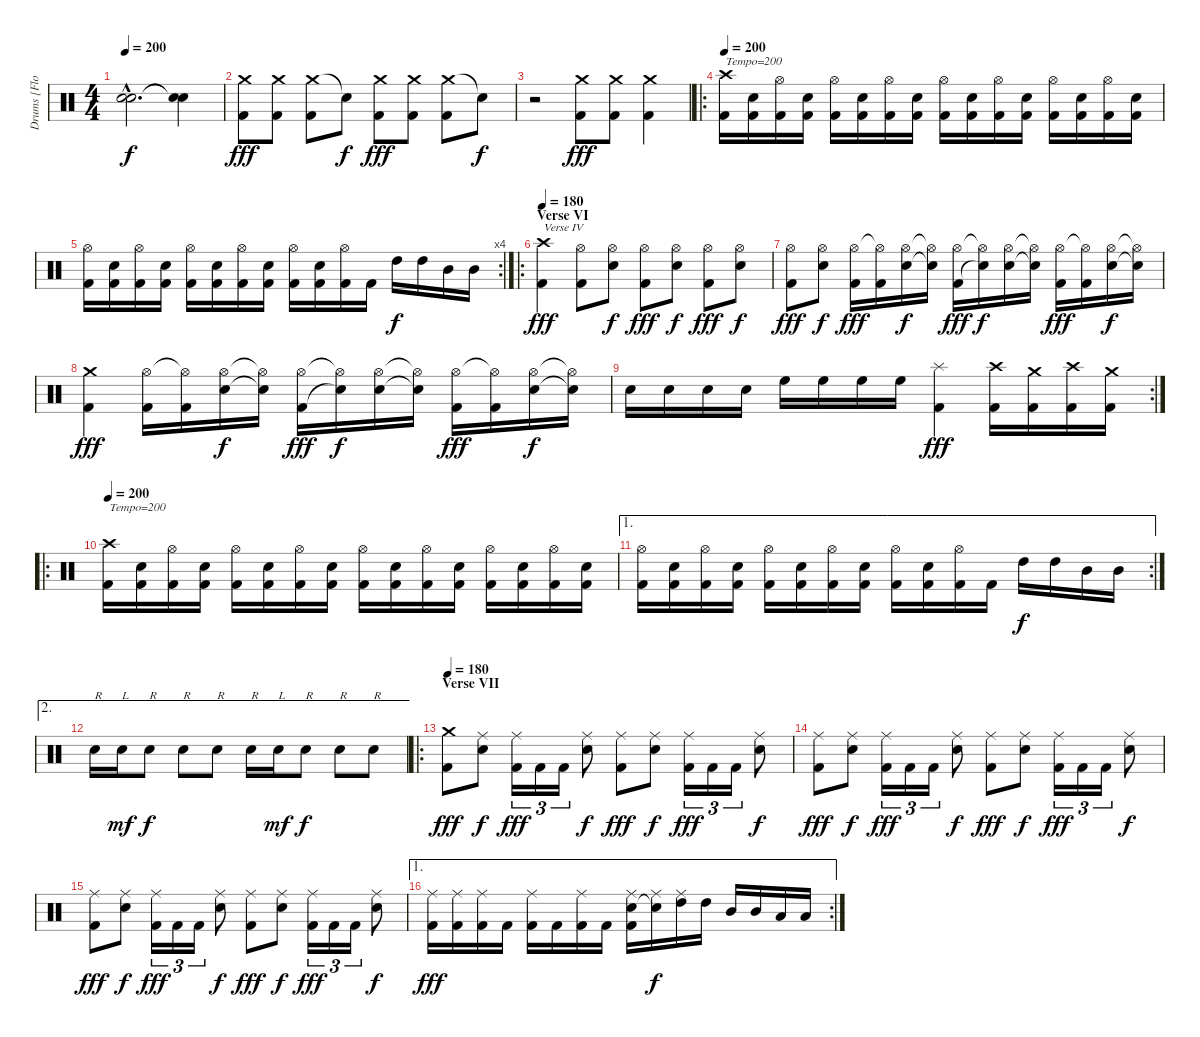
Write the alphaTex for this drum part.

\track ("Drums [Flo Mounier]" "Drums [Flo") {instrument percussion}
\staff {score}
\articulation defaults
\ts (4 4)
\tempo 200
\clef neutral
\ks c
("Snare (hit)"{hac t} "Snare (hit)"{hac t}).2{d dy f} ("Snare (hit)"{t} "Snare (hit)"{t}).4{volume 16 balance 8} |
("Crash medium (hit)" "Kick (hit) 2").8{dy fff} ("Crash medium (hit)" "Kick (hit) 2").8 ("Crash medium (hit)" "Kick (hit) 2").8 "Snare (hit)"{t}.8{dy f volume 0} ("Crash medium (hit)" "Kick (hit) 2").8{dy fff volume 16} ("Crash medium (hit)" "Kick (hit) 2").8 ("Crash medium (hit)" "Kick (hit) 2").8 "Snare (hit)"{t}.8{dy f} |
r.2 ("Crash medium (hit)" "Kick (hit) 2").8{dy fff volume 16} ("Crash medium (hit)" "Kick (hit) 2").8 ("Crash medium (hit)" "Kick (hit) 2").4 |
\ro
\tempo 200
("Crash high (hit)" "Kick (hit) 2").16{txt "Tempo=200"} ("Electric Snare (hit)" "Kick (hit) 2").16 ("Hi-Hat (open)" "Kick (hit) 2").16 ("Electric Snare (hit)" "Kick (hit) 2").16 ("Hi-Hat (open)" "Kick (hit) 2").16 ("Electric Snare (hit)" "Kick (hit) 2").16 ("Hi-Hat (open)" "Kick (hit) 2").16 ("Electric Snare (hit)" "Kick (hit) 2").16 ("Hi-Hat (open)" "Kick (hit) 2").16 ("Electric Snare (hit)" "Kick (hit) 2").16 ("Hi-Hat (open)" "Kick (hit) 2").16 ("Electric Snare (hit)" "Kick (hit) 2").16 ("Hi-Hat (open)" "Kick (hit) 2").16 ("Electric Snare (hit)" "Kick (hit) 2").16 ("Hi-Hat (open)" "Kick (hit) 2").16 ("Electric Snare (hit)" "Kick (hit) 2").16 |
\rc 4
("Hi-Hat (open)" "Kick (hit) 2").16 ("Electric Snare (hit)" "Kick (hit) 2").16 ("Hi-Hat (open)" "Kick (hit) 2").16 ("Electric Snare (hit)" "Kick (hit) 2").16 ("Hi-Hat (open)" "Kick (hit) 2").16 ("Electric Snare (hit)" "Kick (hit) 2").16 ("Hi-Hat (open)" "Kick (hit) 2").16 ("Electric Snare (hit)" "Kick (hit) 2").16 ("Hi-Hat (open)" "Kick (hit) 2").16 ("Electric Snare (hit)" "Kick (hit) 2").16 ("Hi-Hat (open)" "Kick (hit) 2").16 "Kick (hit) 2".16 "High Tom (hit)".16{dy f} "High Tom (hit)".16 "Mid Tom (hit)".16 "Mid Tom (hit)".16 |
\ro
\section ("" "Verse VI")
\tempo 180
("Crash high (hit)" "Kick (hit) 2").4{txt "Verse IV" dy fff} ("Hi-Hat (open)" "Kick (hit) 2").8 ("Hi-Hat (open)" "Electric Snare (hit)").8{dy f} ("Hi-Hat (open)" "Kick (hit) 2").8{dy fff} ("Hi-Hat (open)" "Electric Snare (hit)").8{dy f} ("Hi-Hat (open)" "Kick (hit) 2").8{dy fff} ("Hi-Hat (open)" "Electric Snare (hit)").8{dy f} |
("Hi-Hat (open)" "Kick (hit) 2").8{dy fff} ("Hi-Hat (open)" "Electric Snare (hit)").8{dy f} ("Hi-Hat (open)" "Kick (hit) 2").16{dy fff} ("Hi-Hat (open)"{t} "Kick (hit) 2").16 ("Hi-Hat (open)" "Electric Snare (hit)").16{dy f} ("Hi-Hat (open)"{t} "Snare (hit)"{t}).16 ("Hi-Hat (open)" "Kick (hit) 2").16{dy fff} ("Hi-Hat (open)"{t} "Snare (hit)"{t}).16{dy f} ("Hi-Hat (open)" "Electric Snare (hit)").16 ("Hi-Hat (open)"{t} "Snare (hit)"{t}).16 ("Hi-Hat (open)" "Kick (hit) 2").16{dy fff} ("Hi-Hat (open)"{t} "Kick (hit) 2").16 ("Hi-Hat (open)" "Electric Snare (hit)").16{dy f} ("Hi-Hat (open)"{t} "Snare (hit)"{t}).16 |
("Crash medium (hit)" "Kick (hit) 2").4{dy fff} ("Hi-Hat (open)" "Kick (hit) 2").16 ("Hi-Hat (open)"{t} "Kick (hit) 2").16 ("Hi-Hat (open)" "Electric Snare (hit)").16{dy f} ("Hi-Hat (open)"{t} "Snare (hit)"{t}).16 ("Hi-Hat (open)" "Kick (hit) 2").16{dy fff} ("Hi-Hat (open)"{t} "Snare (hit)"{t}).16{dy f} ("Hi-Hat (open)" "Electric Snare (hit)").16 ("Hi-Hat (open)"{t} "Snare (hit)"{t}).16 ("Hi-Hat (open)" "Kick (hit) 2").16{dy fff} ("Hi-Hat (open)"{t} "Kick (hit) 2").16 ("Hi-Hat (open)" "Electric Snare (hit)").16{dy f} ("Hi-Hat (open)"{t} "Snare (hit)"{t}).16 |
\rc 2 "Electric Snare (hit)".16 "Electric Snare (hit)".16 "Electric Snare (hit)".16 "Electric Snare (hit)".16 "High Floor Tom (hit)".16 "High Floor Tom (hit)".16 "High Floor Tom (hit)".16 "High Floor Tom (hit)".16
("Splash (hit)" "Kick (hit) 2").4{dy fff} ("Crash high (hit)" "Kick (hit) 2").16 ("Crash medium (hit)" "Kick (hit) 2").16 ("Crash high (hit)" "Kick (hit) 2").16 ("Crash medium (hit)" "Kick (hit) 2").16 |
\ro
\tempo 200
("Crash high (hit)" "Kick (hit) 2").16{txt "Tempo=200"} ("Electric Snare (hit)" "Kick (hit) 2").16 ("Hi-Hat (open)" "Kick (hit) 2").16 ("Electric Snare (hit)" "Kick (hit) 2").16 ("Hi-Hat (open)" "Kick (hit) 2").16 ("Electric Snare (hit)" "Kick (hit) 2").16 ("Hi-Hat (open)" "Kick (hit) 2").16 ("Electric Snare (hit)" "Kick (hit) 2").16 ("Hi-Hat (open)" "Kick (hit) 2").16 ("Electric Snare (hit)" "Kick (hit) 2").16 ("Hi-Hat (open)" "Kick (hit) 2").16 ("Electric Snare (hit)" "Kick (hit) 2").16 ("Hi-Hat (open)" "Kick (hit) 2").16 ("Electric Snare (hit)" "Kick (hit) 2").16 ("Hi-Hat (open)" "Kick (hit) 2").16 ("Electric Snare (hit)" "Kick (hit) 2").16 |
\ae 1
\rc 2
("Hi-Hat (open)" "Kick (hit) 2").16 ("Electric Snare (hit)" "Kick (hit) 2").16 ("Hi-Hat (open)" "Kick (hit) 2").16 ("Electric Snare (hit)" "Kick (hit) 2").16 ("Hi-Hat (open)" "Kick (hit) 2").16 ("Electric Snare (hit)" "Kick (hit) 2").16 ("Hi-Hat (open)" "Kick (hit) 2").16 ("Electric Snare (hit)" "Kick (hit) 2").16 ("Hi-Hat (open)" "Kick (hit) 2").16 ("Electric Snare (hit)" "Kick (hit) 2").16 ("Hi-Hat (open)" "Kick (hit) 2").16 "Kick (hit) 2".16 "High Tom (hit)".16{dy f} "High Tom (hit)".16 "Mid Tom (hit)".16 "Mid Tom (hit)".16 |
\ae 2 "Electric Snare (hit)".16{txt "R"} "Electric Snare (hit)".16{txt "L" dy mf} "Electric Snare (hit)".8{txt "R" dy f} "Electric Snare (hit)".8{txt "R"} "Electric Snare (hit)".8{txt "R"} "Electric Snare (hit)".16{txt "R"} "Electric Snare (hit)".16{txt "L" dy mf} "Electric Snare (hit)".8{txt "R" dy f} "Electric Snare (hit)".8{txt "R"} "Electric Snare (hit)".8{txt "R"}
|
\ro
\section ("" "Verse VII")
\tempo 180
("Crash medium (hit)" "Kick (hit) 2").8{dy fff} ("Ride (middle)" "Electric Snare (hit)").8{dy f} ("Ride (middle)" "Kick (hit) 2").16{tu (3 2) dy fff} "Kick (hit) 2".16{tu (3 2)} "Kick (hit) 2".16{tu (3 2)} ("Ride (middle)" "Electric Snare (hit)").8{dy f} ("Ride (middle)" "Kick (hit) 2").8{dy fff} ("Ride (middle)" "Electric Snare (hit)").8{dy f} ("Ride (middle)" "Kick (hit) 2").16{tu (3 2) dy fff} "Kick (hit) 2".16{tu (3 2)} "Kick (hit) 2".16{tu (3 2)} ("Ride (middle)" "Electric Snare (hit)").8{dy f} |
("Ride (middle)" "Kick (hit) 2").8{dy fff} ("Ride (middle)" "Electric Snare (hit)").8{dy f} ("Ride (middle)" "Kick (hit) 2").16{tu (3 2) dy fff} "Kick (hit) 2".16{tu (3 2)} "Kick (hit) 2".16{tu (3 2)} ("Ride (middle)" "Electric Snare (hit)").8{dy f} ("Ride (middle)" "Kick (hit) 2").8{dy fff} ("Ride (middle)" "Electric Snare (hit)").8{dy f} ("Ride (middle)" "Kick (hit) 2").16{tu (3 2) dy fff} "Kick (hit) 2".16{tu (3 2)} "Kick (hit) 2".16{tu (3 2)} ("Ride (middle)" "Electric Snare (hit)").8{dy f} |
("Ride (middle)" "Kick (hit) 2").8{dy fff} ("Ride (middle)" "Electric Snare (hit)").8{dy f} ("Ride (middle)" "Kick (hit) 2").16{tu (3 2) dy fff} "Kick (hit) 2".16{tu (3 2)} "Kick (hit) 2".16{tu (3 2)} ("Ride (middle)" "Electric Snare (hit)").8{dy f} ("Ride (middle)" "Kick (hit) 2").8{dy fff} ("Ride (middle)" "Electric Snare (hit)").8{dy f} ("Ride (middle)" "Kick (hit) 2").16{tu (3 2) dy fff} "Kick (hit) 2".16{tu (3 2)} "Kick (hit) 2".16{tu (3 2)} ("Ride (middle)" "Electric Snare (hit)").8{dy f} |
\ae 1
\rc 2
("Ride (middle)" "Kick (hit) 2").16{dy fff} ("Ride (middle)" "Kick (hit) 2").16 ("Ride (middle)" "Kick (hit) 2").16 "Kick (hit) 2".16 ("Ride (middle)" "Kick (hit) 2").16 "Kick (hit) 2".16 ("Ride (middle)" "Kick (hit) 2").16 "Kick (hit) 2".16 ("Ride (middle)" "Electric Snare (hit)" "Kick (hit) 2").16 ("Ride (middle)" "Snare (hit)"{t}).16{dy f} ("Ride (middle)" "High Tom (hit)").16 "High Tom (hit)".16 "Mid Tom (hit)".16 "Mid Tom (hit)".16 "Low Tom (hit)".16 "Low Tom (hit)".16
